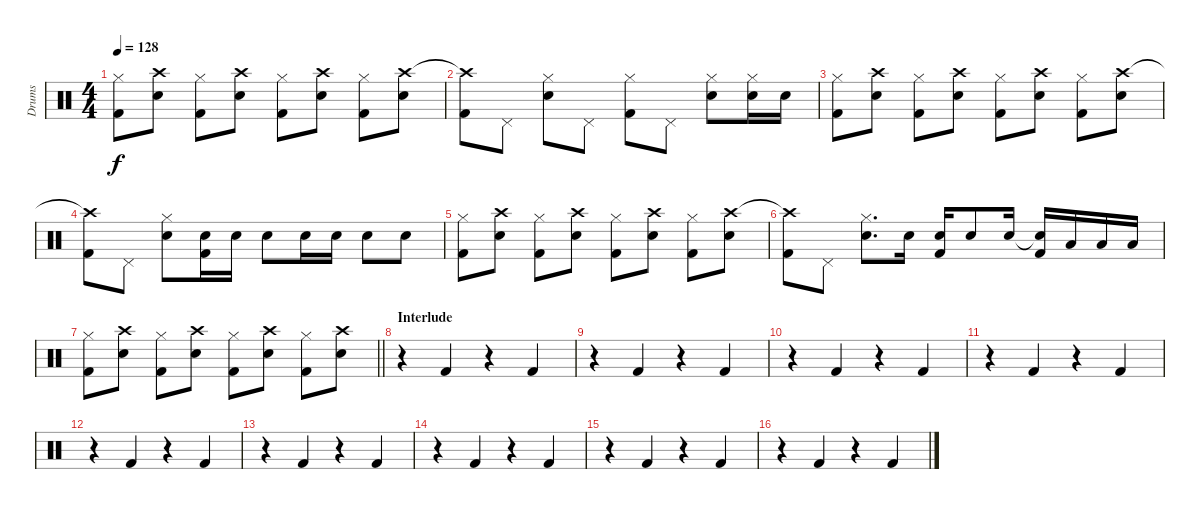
\track ("Drums" "Drums") {instrument percussion}
\staff {score}
\articulation defaults
\ts (4 4)
\tempo 128
\clef neutral
\ks c
("Hi-Hat (closed)" "Kick (hit) 2").8{dy f} ("Crash high (hit)" "Snare (hit) 2").8 ("Hi-Hat (closed)" "Kick (hit) 2").8 ("Crash high (hit)" "Snare (hit) 2").8 ("Hi-Hat (closed)" "Kick (hit) 2").8 ("Crash high (hit)" "Snare (hit) 2").8 ("Hi-Hat (closed)" "Kick (hit) 2").8 ("Crash high (hit)" "Snare (hit) 2").8 |
("Crash high (hit)"{t} "Kick (hit) 2").8 "Pedal Hi-Hat (hit)".8 ("Hi-Hat (closed)" "Snare (hit) 2").8 "Pedal Hi-Hat (hit)".8 ("Hi-Hat (closed)" "Kick (hit) 2").8 "Pedal Hi-Hat (hit)".8 ("Hi-Hat (closed)" "Snare (hit) 2").8 ("Hi-Hat (closed)" "Snare (hit) 2").16 "Snare (hit) 2".16 |
("Hi-Hat (closed)" "Kick (hit) 2").8 ("Crash high (hit)" "Snare (hit) 2").8 ("Hi-Hat (closed)" "Kick (hit) 2").8 ("Crash high (hit)" "Snare (hit) 2").8 ("Hi-Hat (closed)" "Kick (hit) 2").8 ("Crash high (hit)" "Snare (hit) 2").8 ("Hi-Hat (closed)" "Kick (hit) 2").8 ("Crash high (hit)" "Snare (hit) 2").8 |
("Crash high (hit)"{t} "Kick (hit) 2").8 "Pedal Hi-Hat (hit)".8 ("Hi-Hat (closed)" "Snare (hit) 2").8 ("Snare (hit) 2" "Kick (hit) 2").16 "Snare (hit) 2".16 "Snare (hit) 2".8 "Snare (hit) 2".16 "Snare (hit) 2".16 "Snare (hit) 2".8 "Snare (hit) 2".8 |
("Hi-Hat (closed)" "Kick (hit) 2").8 ("Crash high (hit)" "Snare (hit) 2").8 ("Hi-Hat (closed)" "Kick (hit) 2").8 ("Crash high (hit)" "Snare (hit) 2").8 ("Hi-Hat (closed)" "Kick (hit) 2").8 ("Crash high (hit)" "Snare (hit) 2").8 ("Hi-Hat (closed)" "Kick (hit) 2").8 ("Crash high (hit)" "Snare (hit) 2").8 |
("Crash high (hit)"{t} "Kick (hit) 2").8 "Pedal Hi-Hat (hit)".8 ("Hi-Hat (closed)" "Snare (hit) 2").8{d} "Snare (hit) 2".16 ("Snare (hit) 2" "Kick (hit) 2").16 "Snare (hit) 2".8 "Snare (hit) 2".16 ("Snare (hit)"{t} "Kick (hit) 2").16 "Low Tom (hit)".16 "Low Tom (hit)".16 "Low Tom (hit)".16 |
\barLineRight lightlight
("Hi-Hat (closed)" "Kick (hit) 2").8 ("Crash high (hit)" "Snare (hit) 2").8 ("Hi-Hat (closed)" "Kick (hit) 2").8 ("Crash high (hit)" "Snare (hit) 2").8 ("Hi-Hat (closed)" "Kick (hit) 2").8 ("Crash high (hit)" "Snare (hit) 2").8 ("Hi-Hat (closed)" "Kick (hit) 2").8 ("Crash high (hit)" "Snare (hit) 2").8 |
\section ("" "Interlude")
r.4 "Kick (hit) 2".4 r.4 "Kick (hit) 2".4 |
r.4 "Kick (hit) 2".4 r.4 "Kick (hit) 2".4 |
r.4 "Kick (hit) 2".4 r.4 "Kick (hit) 2".4 |
r.4 "Kick (hit) 2".4 r.4 "Kick (hit) 2".4 |
r.4 "Kick (hit) 2".4 r.4 "Kick (hit) 2".4 |
r.4 "Kick (hit) 2".4 r.4 "Kick (hit) 2".4 |
r.4 "Kick (hit) 2".4 r.4 "Kick (hit) 2".4 |
r.4 "Kick (hit) 2".4 r.4 "Kick (hit) 2".4 |
r.4 "Kick (hit) 2".4 r.4 "Kick (hit) 2".4
